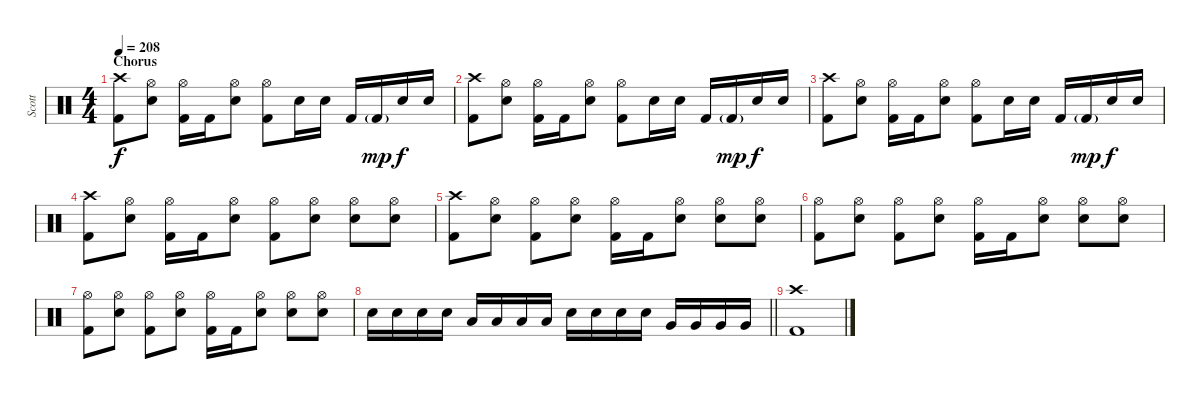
\track ("Scott" "Scott") {instrument percussion}
\staff {score}
\articulation defaults
\ts (4 4)
\section ("" "Chorus")
\tempo 208
\clef neutral
\ks c
("Crash high (hit)" "Kick (hit) 2").8{dy f} ("Hi-Hat (open)" "Electric Snare (hit)").8 ("Hi-Hat (open)" "Kick (hit) 2").16 "Kick (hit) 2".16 ("Hi-Hat (open)" "Electric Snare (hit)").8 ("Hi-Hat (open)" "Kick (hit) 2").8 "Electric Snare (hit)".16 "Electric Snare (hit)".16 "Kick (hit) 2".16 "Kick (hit) 2"{g}.16{dy mp} "Electric Snare (hit)".16{dy f} "Electric Snare (hit)".16 |
("Crash high (hit)" "Kick (hit) 2").8 ("Hi-Hat (open)" "Electric Snare (hit)").8 ("Hi-Hat (open)" "Kick (hit) 2").16 "Kick (hit) 2".16 ("Hi-Hat (open)" "Electric Snare (hit)").8 ("Hi-Hat (open)" "Kick (hit) 2").8 "Electric Snare (hit)".16 "Electric Snare (hit)".16 "Kick (hit) 2".16 "Kick (hit) 2"{g}.16{dy mp} "Electric Snare (hit)".16{dy f} "Electric Snare (hit)".16 |
("Crash high (hit)" "Kick (hit) 2").8 ("Hi-Hat (open)" "Electric Snare (hit)").8 ("Hi-Hat (open)" "Kick (hit) 2").16 "Kick (hit) 2".16 ("Hi-Hat (open)" "Electric Snare (hit)").8 ("Hi-Hat (open)" "Kick (hit) 2").8 "Electric Snare (hit)".16 "Electric Snare (hit)".16 "Kick (hit) 2".16 "Kick (hit) 2"{g}.16{dy mp} "Electric Snare (hit)".16{dy f} "Electric Snare (hit)".16 |
("Crash high (hit)" "Kick (hit) 2").8 ("Hi-Hat (open)" "Electric Snare (hit)").8 ("Hi-Hat (open)" "Kick (hit) 2").16 "Kick (hit) 2".16 ("Hi-Hat (open)" "Electric Snare (hit)").8 ("Hi-Hat (open)" "Kick (hit) 2").8 ("Hi-Hat (open)" "Electric Snare (hit)").8 ("Hi-Hat (open)" "Electric Snare (hit)").8 ("Hi-Hat (open)" "Electric Snare (hit)").8 |
("Crash high (hit)" "Kick (hit) 2").8 ("Hi-Hat (open)" "Electric Snare (hit)").8 ("Hi-Hat (open)" "Kick (hit) 2").8 ("Hi-Hat (open)" "Electric Snare (hit)").8 ("Hi-Hat (open)" "Kick (hit) 2").16 "Kick (hit) 2".16 ("Hi-Hat (open)" "Electric Snare (hit)").8 ("Hi-Hat (open)" "Electric Snare (hit)").8 ("Hi-Hat (open)" "Electric Snare (hit)").8 |
("Hi-Hat (open)" "Kick (hit) 2").8 ("Hi-Hat (open)" "Electric Snare (hit)").8 ("Hi-Hat (open)" "Kick (hit) 2").8 ("Hi-Hat (open)" "Electric Snare (hit)").8 ("Hi-Hat (open)" "Kick (hit) 2").16 "Kick (hit) 2".16 ("Hi-Hat (open)" "Electric Snare (hit)").8 ("Hi-Hat (open)" "Electric Snare (hit)").8 ("Hi-Hat (open)" "Electric Snare (hit)").8 |
("Hi-Hat (open)" "Kick (hit) 2").8 ("Hi-Hat (open)" "Electric Snare (hit)").8 ("Hi-Hat (open)" "Kick (hit) 2").8 ("Hi-Hat (open)" "Electric Snare (hit)").8 ("Hi-Hat (open)" "Kick (hit) 2").16 "Kick (hit) 2".16 ("Hi-Hat (open)" "Electric Snare (hit)").8 ("Hi-Hat (open)" "Electric Snare (hit)").8 ("Hi-Hat (open)" "Electric Snare (hit)").8 |
\barLineRight lightlight "Electric Snare (hit)".16 "Electric Snare (hit)".16 "Electric Snare (hit)".16 "Electric Snare (hit)".16 "Low Tom (hit)".16 "Low Tom (hit)".16 "Low Tom (hit)".16 "Low Tom (hit)".16 "Electric Snare (hit)".16 "Electric Snare (hit)".16 "Electric Snare (hit)".16 "Electric Snare (hit)".16 "Very Low Tom (hit)".16 "Very Low Tom (hit)".16 "Very Low Tom (hit)".16 "Very Low Tom (hit)".16
|
("Crash high (hit)" "Kick (hit) 2").1
